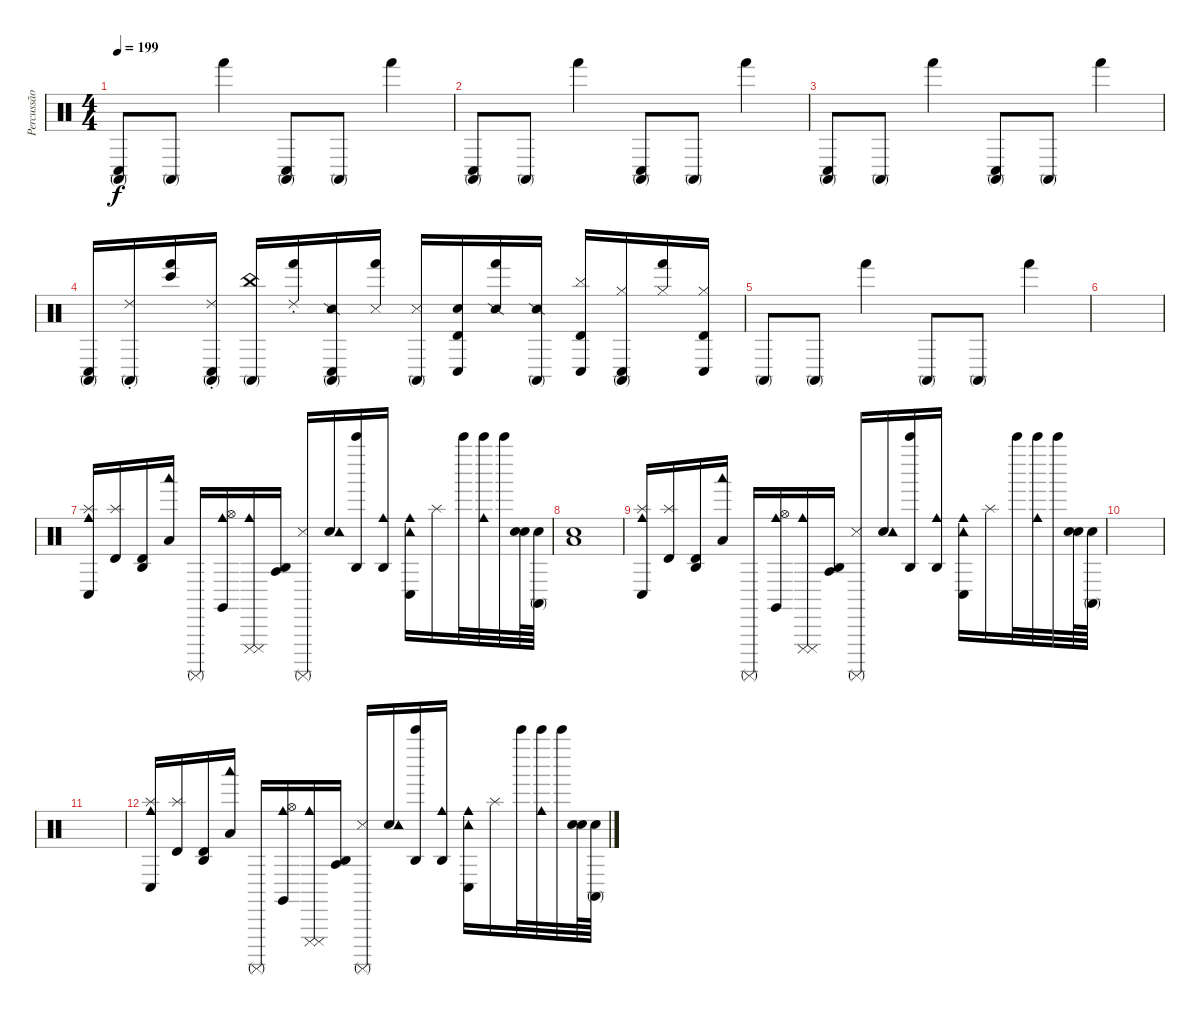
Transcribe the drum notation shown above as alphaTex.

\track ("Percussão" "Percussão") {instrument percussion}
\staff {score}
\articulation defaults
\ts (4 4)
\tempo 199
\clef neutral
\ks c
("Conga high (mute)" "Conga low (hit)").8{dy f} "Conga high (mute)".8 "Hand (hit)".4 ("Conga high (mute)" "Conga low (hit)").8 "Conga high (mute)".8 "Hand (hit)".4 |
("Conga high (mute)" "Conga low (hit)").8 "Conga high (mute)".8 "Hand (hit)".4 ("Conga high (mute)" "Conga low (hit)").8 "Conga high (mute)".8 "Hand (hit)".4 |
("Conga high (mute)" "Conga low (hit)").8 "Conga high (mute)".8 "Hand (hit)".4 ("Conga high (mute)" "Conga low (hit)").8 "Conga high (mute)".8 "Hand (hit)".4 |
("Conga high (mute)" "Conga low (hit)").16 ("Conga high (mute)" "Ride (choke) 2").16 ("Hand (hit)" "Bongo High (hit)").16 ("Conga high (mute)" "Conga low (hit)" "Ride (choke) 2").16 ("Conga high (mute)" "China (hit)").16 ("Hand (hit)" "Ride (choke) 2").16 ("Conga high (mute)" "Conga low (hit)" "Snare (side stick) 2").16 ("Hand (hit)" "Metronome (hit)").16 ("Conga high (mute)" "Metronome (hit)").16 ("Timbale high (hit)" "Conga low (hit)" "Snare (hit) 2").16 ("Hand (hit)" "Snare (side stick) 2").16 ("Conga high (mute)" "Snare (side stick) 2").16 ("Timbale high (hit)" "Conga low (hit)" "Cymbal (hit)").16 ("Conga high (mute)" "Conga low (hit)" "Hi-Hat (closed)").16 ("Hand (hit)" "Hi-Hat (closed)").16 ("Timbale high (hit)" "Conga low (hit)" "Hi-Hat (closed)").16 |
"Conga high (mute)".8 "Conga high (mute)".8 "Hand (hit)".4 "Conga high (mute)".8 "Conga high (mute)".8 "Hand (hit)".4 |
|
("Cowbell medium (hit)" "Conga low (hit)" "Splash (hit)").16 ("Splash (hit)" "Timbale high (hit)").16 ("Timbale high (hit)" "Agogo high (hit)").16 ("Low Tom (hit)" "Woodblock low (hit)").16 "Surdo (mute)".16 ("Cowbell medium (hit)" "Claves (hit)" "Hi-Hat (open)").16 ("Cuica (mute)" "Cuica (mute)" "Cowbell medium (hit)").16 ("Agogo tow (hit)" "Agogo high (hit)").16 ("Surdo (mute)" "Metronome (hit)").16 ("Snare (hit)" "Tambourine (hit)").16 ("Bell Tree (hit)" "Agogo high (hit)").16 ("Agogo high (hit)" "Cowbell medium (hit)").16 ("Tambourine (hit)" "Conga low (hit)" "Cowbell medium (hit)").16 "Splash (hit)".16 "Bell Tree (hit)".32 ("Bell Tree (hit)" "Cowbell medium (hit)").32 "Bell Tree (hit)".32 ("Snare (hit)" "Snare (hit)").64 ("Conga high (mute)" "Snare (hit)").64 |
("Snare (hit)" "Low Tom (hit)").1 |
("Cowbell medium (hit)" "Conga low (hit)" "Splash (hit)").16 ("Splash (hit)" "Timbale high (hit)").16 ("Timbale high (hit)" "Agogo high (hit)").16 ("Low Tom (hit)" "Woodblock low (hit)").16 "Surdo (mute)".16 ("Cowbell medium (hit)" "Claves (hit)" "Hi-Hat (open)").16 ("Cuica (mute)" "Cuica (mute)" "Cowbell medium (hit)").16 ("Agogo tow (hit)" "Agogo high (hit)").16 ("Surdo (mute)" "Metronome (hit)").16 ("Snare (hit)" "Tambourine (hit)").16 ("Bell Tree (hit)" "Agogo high (hit)").16 ("Agogo high (hit)" "Cowbell medium (hit)").16 ("Tambourine (hit)" "Conga low (hit)" "Cowbell medium (hit)").16 "Splash (hit)".16 "Bell Tree (hit)".32 ("Bell Tree (hit)" "Cowbell medium (hit)").32 "Bell Tree (hit)".32 ("Snare (hit)" "Snare (hit)").64 ("Conga high (mute)" "Snare (hit)").64 |
|
|
("Cowbell medium (hit)" "Conga low (hit)" "Splash (hit)").16 ("Splash (hit)" "Timbale high (hit)").16 ("Timbale high (hit)" "Agogo high (hit)").16 ("Low Tom (hit)" "Woodblock low (hit)").16 "Surdo (mute)".16 ("Cowbell medium (hit)" "Claves (hit)" "Hi-Hat (open)").16 ("Cuica (mute)" "Cuica (mute)" "Cowbell medium (hit)").16 ("Agogo tow (hit)" "Agogo high (hit)").16 ("Surdo (mute)" "Metronome (hit)").16 ("Snare (hit)" "Tambourine (hit)").16 ("Bell Tree (hit)" "Agogo high (hit)").16 ("Agogo high (hit)" "Cowbell medium (hit)").16 ("Tambourine (hit)" "Conga low (hit)" "Cowbell medium (hit)").16 "Splash (hit)".16 "Bell Tree (hit)".32 ("Bell Tree (hit)" "Cowbell medium (hit)").32 "Bell Tree (hit)".32 ("Snare (hit)" "Snare (hit)").64 ("Conga high (mute)" "Snare (hit)").64
